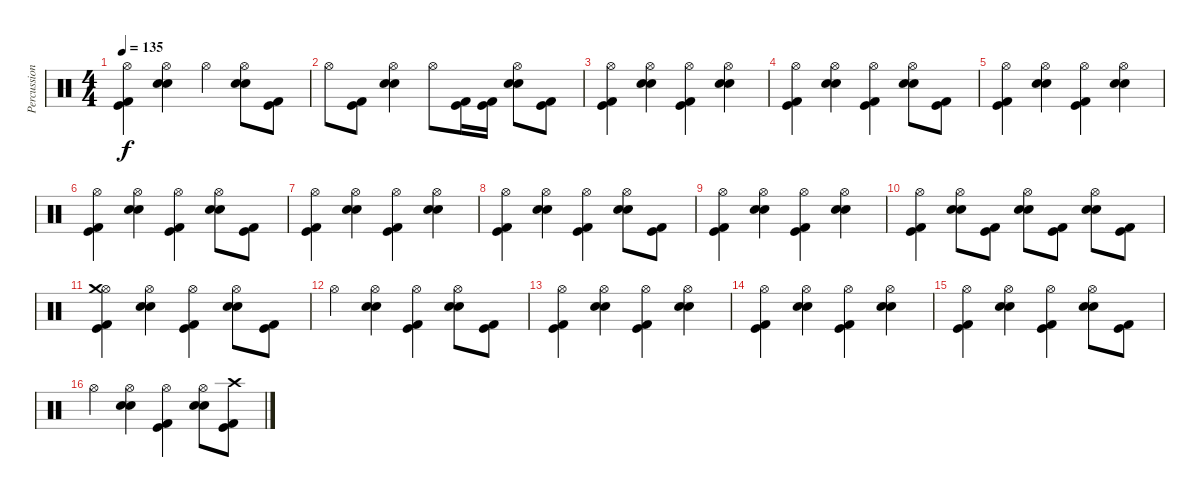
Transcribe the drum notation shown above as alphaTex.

\track ("Percussion" "Percussion") {instrument percussion}
\staff {score}
\articulation defaults
\ts (4 4)
\tempo 135
\clef neutral
\ks c
("Hi-Hat (open)" "Kick (hit)" "Kick (hit) 2").4{dy f} ("Hi-Hat (open)" "Electric Snare (hit)" "Metronome (bell)").4 "Hi-Hat (open)".4 ("Hi-Hat (open)" "Electric Snare (hit)" "Metronome (bell)").8 ("Kick (hit)" "Kick (hit) 2").8 |
"Hi-Hat (open)".8 ("Kick (hit)" "Kick (hit) 2").8 ("Hi-Hat (open)" "Electric Snare (hit)" "Metronome (bell)").4 "Hi-Hat (open)".8 ("Kick (hit)" "Kick (hit) 2").16 ("Kick (hit)" "Kick (hit) 2").16 ("Hi-Hat (open)" "Electric Snare (hit)" "Metronome (bell)").8 ("Kick (hit)" "Kick (hit) 2").8 |
("Hi-Hat (open)" "Kick (hit)" "Kick (hit) 2").4 ("Hi-Hat (open)" "Electric Snare (hit)" "Metronome (bell)").4 ("Hi-Hat (open)" "Kick (hit)" "Kick (hit) 2").4 ("Hi-Hat (open)" "Electric Snare (hit)" "Metronome (bell)").4 |
("Hi-Hat (open)" "Kick (hit)" "Kick (hit) 2").4 ("Hi-Hat (open)" "Electric Snare (hit)" "Metronome (bell)").4 ("Hi-Hat (open)" "Kick (hit)" "Kick (hit) 2").4 ("Hi-Hat (open)" "Electric Snare (hit)" "Metronome (bell)").8 ("Kick (hit)" "Kick (hit) 2").8 |
("Hi-Hat (open)" "Kick (hit)" "Kick (hit) 2").4 ("Hi-Hat (open)" "Electric Snare (hit)" "Metronome (bell)").4 ("Hi-Hat (open)" "Kick (hit)" "Kick (hit) 2").4 ("Hi-Hat (open)" "Electric Snare (hit)" "Metronome (bell)").4 |
("Hi-Hat (open)" "Kick (hit)" "Kick (hit) 2").4 ("Hi-Hat (open)" "Electric Snare (hit)" "Metronome (bell)").4 ("Hi-Hat (open)" "Kick (hit)" "Kick (hit) 2").4 ("Hi-Hat (open)" "Electric Snare (hit)" "Metronome (bell)").8 ("Kick (hit)" "Kick (hit) 2").8 |
("Hi-Hat (open)" "Kick (hit)" "Kick (hit) 2").4 ("Hi-Hat (open)" "Electric Snare (hit)" "Metronome (bell)").4 ("Hi-Hat (open)" "Kick (hit)" "Kick (hit) 2").4 ("Hi-Hat (open)" "Electric Snare (hit)" "Metronome (bell)").4 |
("Hi-Hat (open)" "Kick (hit)" "Kick (hit) 2").4 ("Hi-Hat (open)" "Electric Snare (hit)" "Metronome (bell)").4 ("Hi-Hat (open)" "Kick (hit)" "Kick (hit) 2").4 ("Hi-Hat (open)" "Electric Snare (hit)" "Metronome (bell)").8 ("Kick (hit)" "Kick (hit) 2").8 |
("Hi-Hat (open)" "Kick (hit)" "Kick (hit) 2").4 ("Hi-Hat (open)" "Electric Snare (hit)" "Metronome (bell)").4 ("Hi-Hat (open)" "Kick (hit)" "Kick (hit) 2").4 ("Hi-Hat (open)" "Electric Snare (hit)" "Metronome (bell)").4 |
("Hi-Hat (open)" "Kick (hit)" "Kick (hit) 2").4 ("Hi-Hat (open)" "Electric Snare (hit)" "Metronome (bell)").8 ("Kick (hit)" "Kick (hit) 2").8 ("Hi-Hat (open)" "Electric Snare (hit)" "Metronome (bell)").8 ("Kick (hit)" "Kick (hit) 2").8 ("Hi-Hat (open)" "Electric Snare (hit)" "Metronome (bell)").8 ("Kick (hit)" "Kick (hit) 2").8 |
("Hi-Hat (open)" "Crash medium (hit)" "Kick (hit)" "Kick (hit) 2").4 ("Hi-Hat (open)" "Electric Snare (hit)" "Metronome (bell)").4 ("Hi-Hat (open)" "Kick (hit)" "Kick (hit) 2").4 ("Hi-Hat (open)" "Electric Snare (hit)" "Metronome (bell)").8 ("Kick (hit)" "Kick (hit) 2").8 |
"Hi-Hat (open)".4 ("Hi-Hat (open)" "Electric Snare (hit)" "Metronome (bell)").4 ("Hi-Hat (open)" "Kick (hit)" "Kick (hit) 2").4 ("Hi-Hat (open)" "Electric Snare (hit)" "Metronome (bell)").8 ("Kick (hit)" "Kick (hit) 2").8 |
("Hi-Hat (open)" "Kick (hit)" "Kick (hit) 2").4 ("Hi-Hat (open)" "Electric Snare (hit)" "Metronome (bell)").4 ("Hi-Hat (open)" "Kick (hit)" "Kick (hit) 2").4 ("Hi-Hat (open)" "Electric Snare (hit)" "Metronome (bell)").4 |
("Hi-Hat (open)" "Kick (hit)" "Kick (hit) 2").4 ("Hi-Hat (open)" "Electric Snare (hit)" "Metronome (bell)").4 ("Hi-Hat (open)" "Kick (hit)" "Kick (hit) 2").4 ("Hi-Hat (open)" "Electric Snare (hit)" "Metronome (bell)").4 |
("Hi-Hat (open)" "Kick (hit)" "Kick (hit) 2").4 ("Hi-Hat (open)" "Electric Snare (hit)" "Metronome (bell)").4 ("Hi-Hat (open)" "Kick (hit)" "Kick (hit) 2").4 ("Hi-Hat (open)" "Electric Snare (hit)" "Metronome (bell)").8 ("Kick (hit)" "Kick (hit) 2").8 |
"Hi-Hat (open)".4 ("Hi-Hat (open)" "Electric Snare (hit)" "Metronome (bell)").4 ("Hi-Hat (open)" "Kick (hit)" "Kick (hit) 2").4 ("Hi-Hat (open)" "Electric Snare (hit)" "Metronome (bell)").8 ("Crash high (hit)" "Kick (hit)" "Kick (hit) 2").8
